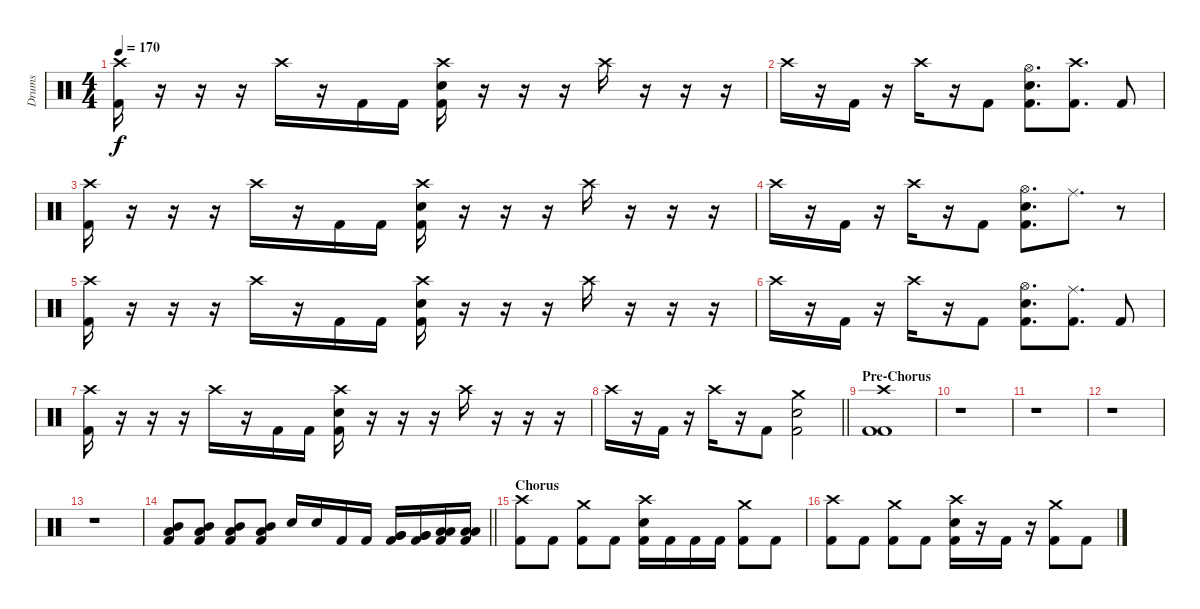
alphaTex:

\track ("Drums" "Drums") {instrument percussion}
\staff {score}
\articulation defaults
\ts (4 4)
\tempo 170
\clef neutral
\ks c
("Crash high (hit)" "Kick (hit) 2").16{dy f} r.16 r.16 r.16 "Crash high (hit)".16 r.16 "Kick (hit) 2".16 "Kick (hit) 2".16 ("Crash high (hit)" "Kick (hit) 2" "Electric Snare (hit)").16 r.16 r.16 r.16 "Crash high (hit)".16 r.16 r.16 r.16 |
"Crash high (hit)".16 r.16 "Kick (hit) 2".16 r.16 "Crash high (hit)".16 r.16 "Kick (hit) 2".8 ("Electric Snare (hit)" "Hi-Hat (open)" "Kick (hit) 2").8{d} ("Crash high (hit)" "Kick (hit) 2").8{d} "Kick (hit) 2".8 |
("Kick (hit) 2" "Crash high (hit)").16 r.16 r.16 r.16 "Crash high (hit)".16 r.16 "Kick (hit) 2".16 "Kick (hit) 2".16 ("Crash high (hit)" "Kick (hit) 2" "Electric Snare (hit)").16 r.16 r.16 r.16 "Crash high (hit)".16 r.16 r.16 r.16 |
"Crash high (hit)".16 r.16 "Kick (hit) 2".16 r.16 "Crash high (hit)".16 r.16 "Kick (hit) 2".8 ("Electric Snare (hit)" "Hi-Hat (open)" "Kick (hit) 2").8{d} "Ride (middle)".8{d} r.8 |
("Kick (hit) 2" "Crash high (hit)").16 r.16 r.16 r.16 "Crash high (hit)".16 r.16 "Kick (hit) 2".16 "Kick (hit) 2".16 ("Crash high (hit)" "Kick (hit) 2" "Electric Snare (hit)").16 r.16 r.16 r.16 "Crash high (hit)".16 r.16 r.16 r.16 |
"Crash high (hit)".16 r.16 "Kick (hit) 2".16 r.16 "Crash high (hit)".16 r.16 "Kick (hit) 2".8 ("Electric Snare (hit)" "Hi-Hat (open)" "Kick (hit) 2").8{d} ("Ride (middle)" "Kick (hit) 2").8{d} "Kick (hit) 2".8 |
("Kick (hit) 2" "Crash high (hit)").16 r.16 r.16 r.16 "Crash high (hit)".16 r.16 "Kick (hit) 2".16 "Kick (hit) 2".16 ("Crash high (hit)" "Kick (hit) 2" "Electric Snare (hit)").16 r.16 r.16 r.16 "Crash high (hit)".16 r.16 r.16 r.16 |
\barLineRight lightlight "Crash high (hit)".16
r.16 "Kick (hit) 2".16 r.16 "Crash high (hit)".16 r.16 "Kick (hit) 2".8 ("Electric Snare (hit)" "Crash medium (hit)" "Kick (hit) 2").2 |
\section ("" "Pre-Chorus")
("Kick (hit) 2" "Crash high (hit)" "Kick (hit) 2").1 |
r.1 |
r.1 |
r.1 |
r.1 |
\barLineRight lightlight
("Low Tom (hit)" "Mid Tom (hit)" "Kick (hit) 2").8 ("Low Tom (hit)" "Mid Tom (hit)" "Kick (hit) 2").8 ("Low Tom (hit)" "Mid Tom (hit)" "Kick (hit) 2").8 ("Low Tom (hit)" "Mid Tom (hit)" "Kick (hit) 2").8 "Electric Snare (hit)".16 "Electric Snare (hit)".16 "Kick (hit) 2".16 "Kick (hit) 2".16 ("Very Low Tom (hit)" "Very Low Tom (hit)" "Kick (hit) 2").16 ("Very Low Tom (hit)" "Very Low Tom (hit)" "Kick (hit) 2").16 ("Low Floor Tom (hit)" "Low Floor Tom (hit)" "Kick (hit) 2").16 ("Low Floor Tom (hit)" "Low Floor Tom (hit)" "Kick (hit) 2").16 |
\section ("" "Chorus")
("Crash high (hit)" "Kick (hit) 2").8 "Kick (hit) 2".8 ("Crash medium (hit)" "Kick (hit) 2").8 "Kick (hit) 2".8 ("Crash high (hit)" "Electric Snare (hit)" "Kick (hit) 2").16 "Kick (hit) 2".16 "Kick (hit) 2".16 "Kick (hit) 2".16 ("Crash medium (hit)" "Kick (hit) 2").8 "Kick (hit) 2".8 |
("Crash high (hit)" "Kick (hit) 2").8 "Kick (hit) 2".8 ("Crash medium (hit)" "Kick (hit) 2").8 "Kick (hit) 2".8 ("Crash high (hit)" "Electric Snare (hit)" "Kick (hit) 2").16 r.16 "Kick (hit) 2".16 r.16 ("Crash medium (hit)" "Kick (hit) 2").8 "Kick (hit) 2".8
